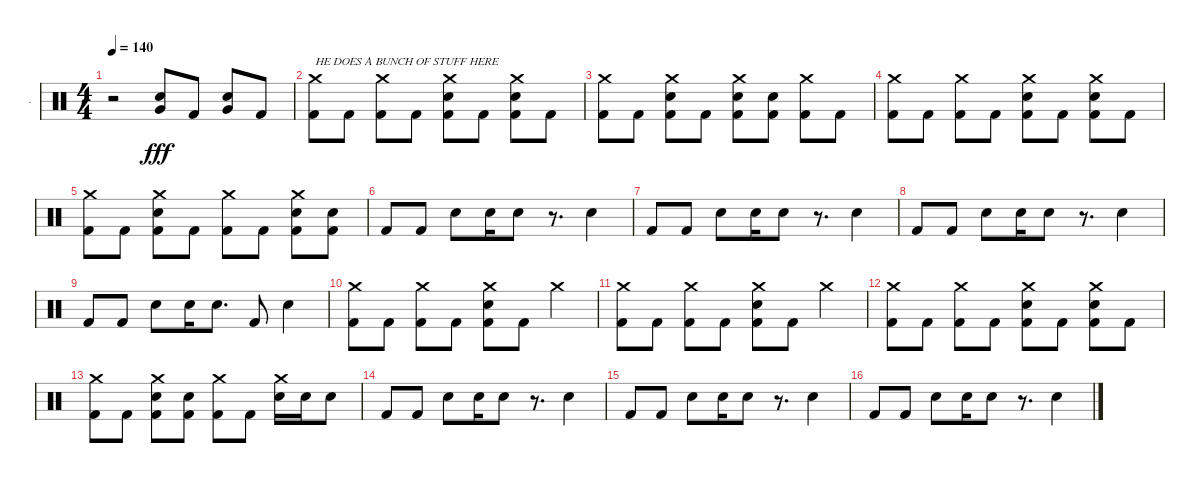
\track ("." ".") {instrument percussion}
\staff {score}
\articulation defaults
\ts (4 4)
\tempo 140
\clef neutral
\ks c
r.2{dy fff} ("Very Low Tom (hit)" "Electric Snare (hit)").8 "Kick (hit) 2".8 ("Very Low Tom (hit)" "Electric Snare (hit)").8 "Kick (hit) 2".8 |
("Crash medium (hit)" "Kick (hit) 2").8{txt "HE DOES A BUNCH OF STUFF HERE"} "Kick (hit) 2".8 ("Crash medium (hit)" "Kick (hit) 2").8 "Kick (hit) 2".8 ("Crash medium (hit)" "Electric Snare (hit)" "Kick (hit) 2").8 "Kick (hit) 2".8 ("Crash medium (hit)" "Electric Snare (hit)" "Kick (hit) 2").8 "Kick (hit) 2".8 |
("Crash medium (hit)" "Kick (hit) 2").8 "Kick (hit) 2".8 ("Crash medium (hit)" "Electric Snare (hit)" "Kick (hit) 2").8 "Kick (hit) 2".8 ("Crash medium (hit)" "Electric Snare (hit)" "Kick (hit) 2").8 ("Electric Snare (hit)" "Kick (hit) 2").8 ("Crash medium (hit)" "Kick (hit) 2").8 "Kick (hit) 2".8 |
("Crash medium (hit)" "Kick (hit) 2").8 "Kick (hit) 2".8 ("Crash medium (hit)" "Kick (hit) 2").8 "Kick (hit) 2".8 ("Crash medium (hit)" "Electric Snare (hit)" "Kick (hit) 2").8 "Kick (hit) 2".8 ("Crash medium (hit)" "Electric Snare (hit)" "Kick (hit) 2").8 "Kick (hit) 2".8 |
("Crash medium (hit)" "Kick (hit) 2").8 "Kick (hit) 2".8 ("Crash medium (hit)" "Electric Snare (hit)" "Kick (hit) 2").8 "Kick (hit) 2".8 ("Crash medium (hit)" "Kick (hit) 2").8 "Kick (hit) 2".8 ("Crash medium (hit)" "Electric Snare (hit)" "Kick (hit) 2").8 ("Electric Snare (hit)" "Kick (hit) 2").8 |
"Kick (hit) 2".8 "Kick (hit) 2".8 "Electric Snare (hit)".8 "Electric Snare (hit)".16 "Electric Snare (hit)".8 r.8{d} "Electric Snare (hit)".4 |
"Kick (hit) 2".8 "Kick (hit) 2".8 "Electric Snare (hit)".8 "Electric Snare (hit)".16 "Electric Snare (hit)".8 r.8{d} "Electric Snare (hit)".4 |
"Kick (hit) 2".8 "Kick (hit) 2".8 "Electric Snare (hit)".8 "Electric Snare (hit)".16 "Electric Snare (hit)".8 r.8{d} "Electric Snare (hit)".4 |
"Kick (hit) 2".8 "Kick (hit) 2".8 "Electric Snare (hit)".8 "Electric Snare (hit)".16 "Electric Snare (hit)".8{d} "Kick (hit) 2".8 "Electric Snare (hit)".4 |
("Crash medium (hit)" "Kick (hit) 2").8 "Kick (hit) 2".8 ("Crash medium (hit)" "Kick (hit) 2").8 "Kick (hit) 2".8 ("Crash medium (hit)" "Electric Snare (hit)" "Kick (hit) 2").8 "Kick (hit) 2".8 "Crash medium (hit)".4 |
("Crash medium (hit)" "Kick (hit) 2").8 "Kick (hit) 2".8 ("Crash medium (hit)" "Kick (hit) 2").8 "Kick (hit) 2".8 ("Crash medium (hit)" "Electric Snare (hit)" "Kick (hit) 2").8 "Kick (hit) 2".8 "Crash medium (hit)".4 |
("Crash medium (hit)" "Kick (hit) 2").8 "Kick (hit) 2".8 ("Crash medium (hit)" "Kick (hit) 2").8 "Kick (hit) 2".8 ("Crash medium (hit)" "Electric Snare (hit)" "Kick (hit) 2").8 "Kick (hit) 2".8 ("Crash medium (hit)" "Electric Snare (hit)" "Kick (hit) 2").8 "Kick (hit) 2".8 |
("Crash medium (hit)" "Kick (hit) 2").8 "Kick (hit) 2".8 ("Crash medium (hit)" "Electric Snare (hit)" "Kick (hit) 2").8 ("Electric Snare (hit)" "Kick (hit) 2").8 ("Crash medium (hit)" "Kick (hit) 2").8 "Kick (hit) 2".8 ("Crash medium (hit)" "Electric Snare (hit)").16 "Electric Snare (hit)".16 "Electric Snare (hit)".8 |
"Kick (hit) 2".8 "Kick (hit) 2".8 "Electric Snare (hit)".8 "Electric Snare (hit)".16 "Electric Snare (hit)".8 r.8{d} "Electric Snare (hit)".4 |
"Kick (hit) 2".8 "Kick (hit) 2".8 "Electric Snare (hit)".8 "Electric Snare (hit)".16 "Electric Snare (hit)".8 r.8{d} "Electric Snare (hit)".4 |
"Kick (hit) 2".8 "Kick (hit) 2".8 "Electric Snare (hit)".8 "Electric Snare (hit)".16 "Electric Snare (hit)".8 r.8{d} "Electric Snare (hit)".4
